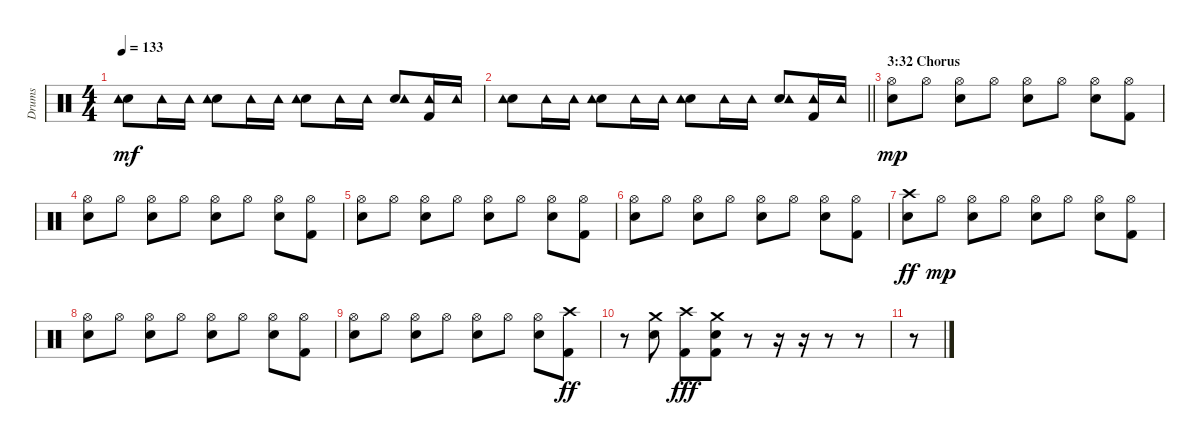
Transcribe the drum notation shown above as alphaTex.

\track ("Drums" "Drums") {instrument percussion}
\staff {score}
\articulation defaults
\ts (4 4)
\tempo 133
\clef neutral
\ks c
("Electric Snare (hit)" "Tambourine (hit)").8{dy mf} "Tambourine (hit)".16 "Tambourine (hit)".16 ("Electric Snare (hit)" "Tambourine (hit)").8 "Tambourine (hit)".16 "Tambourine (hit)".16 ("Electric Snare (hit)" "Tambourine (hit)").8 "Tambourine (hit)".16 "Tambourine (hit)".16 ("Electric Snare (hit)" "Tambourine (hit)").8 ("Kick (hit) 2" "Tambourine (hit)").16 "Tambourine (hit)".16 |
\barLineRight lightlight
("Electric Snare (hit)" "Tambourine (hit)").8 "Tambourine (hit)".16 "Tambourine (hit)".16 ("Electric Snare (hit)" "Tambourine (hit)").8 "Tambourine (hit)".16 "Tambourine (hit)".16 ("Electric Snare (hit)" "Tambourine (hit)").8 "Tambourine (hit)".16 "Tambourine (hit)".16 ("Electric Snare (hit)" "Tambourine (hit)").8 ("Kick (hit) 2" "Tambourine (hit)").16 "Tambourine (hit)".16 |
\section ("" "3:32 Chorus")
("Electric Snare (hit)" "Hi-Hat (open)").8{dy mp} "Hi-Hat (open)".8 ("Electric Snare (hit)" "Hi-Hat (open)").8 "Hi-Hat (open)".8 ("Electric Snare (hit)" "Hi-Hat (open)").8 "Hi-Hat (open)".8 ("Electric Snare (hit)" "Hi-Hat (open)").8 ("Kick (hit) 2" "Hi-Hat (open)").8 |
("Electric Snare (hit)" "Hi-Hat (open)").8 "Hi-Hat (open)".8 ("Electric Snare (hit)" "Hi-Hat (open)").8 "Hi-Hat (open)".8 ("Electric Snare (hit)" "Hi-Hat (open)").8 "Hi-Hat (open)".8 ("Electric Snare (hit)" "Hi-Hat (open)").8 ("Kick (hit) 2" "Hi-Hat (open)").8 |
("Electric Snare (hit)" "Hi-Hat (open)").8 "Hi-Hat (open)".8 ("Electric Snare (hit)" "Hi-Hat (open)").8 "Hi-Hat (open)".8 ("Electric Snare (hit)" "Hi-Hat (open)").8 "Hi-Hat (open)".8 ("Electric Snare (hit)" "Hi-Hat (open)").8 ("Kick (hit) 2" "Hi-Hat (open)").8 |
("Electric Snare (hit)" "Hi-Hat (open)").8 "Hi-Hat (open)".8 ("Electric Snare (hit)" "Hi-Hat (open)").8 "Hi-Hat (open)".8 ("Electric Snare (hit)" "Hi-Hat (open)").8 "Hi-Hat (open)".8 ("Electric Snare (hit)" "Hi-Hat (open)").8 ("Kick (hit) 2" "Hi-Hat (open)").8 |
("Electric Snare (hit)" "Crash high (hit)").8{dy ff} "Hi-Hat (open)".8{dy mp} ("Electric Snare (hit)" "Hi-Hat (open)").8 "Hi-Hat (open)".8 ("Electric Snare (hit)" "Hi-Hat (open)").8 "Hi-Hat (open)".8 ("Electric Snare (hit)" "Hi-Hat (open)").8 ("Kick (hit) 2" "Hi-Hat (open)").8 |
("Electric Snare (hit)" "Hi-Hat (open)").8 "Hi-Hat (open)".8 ("Electric Snare (hit)" "Hi-Hat (open)").8 "Hi-Hat (open)".8 ("Electric Snare (hit)" "Hi-Hat (open)").8 "Hi-Hat (open)".8 ("Electric Snare (hit)" "Hi-Hat (open)").8 ("Kick (hit) 2" "Hi-Hat (open)").8 |
("Electric Snare (hit)" "Hi-Hat (open)").8 "Hi-Hat (open)".8 ("Electric Snare (hit)" "Hi-Hat (open)").8 "Hi-Hat (open)".8 ("Electric Snare (hit)" "Hi-Hat (open)").8 "Hi-Hat (open)".8 ("Electric Snare (hit)" "Hi-Hat (open)").8 ("Kick (hit) 2" "Crash high (hit)").8{dy ff} |
r.8 ("Electric Snare (hit)" "Crash medium (hit)").8 ("Kick (hit) 2" "Crash high (hit)").8{dy fff} ("Kick (hit) 2" "Electric Snare (hit)" "Crash medium (hit)").8 r.8 r.16 r.16 r.8 r.8 |
r.8
